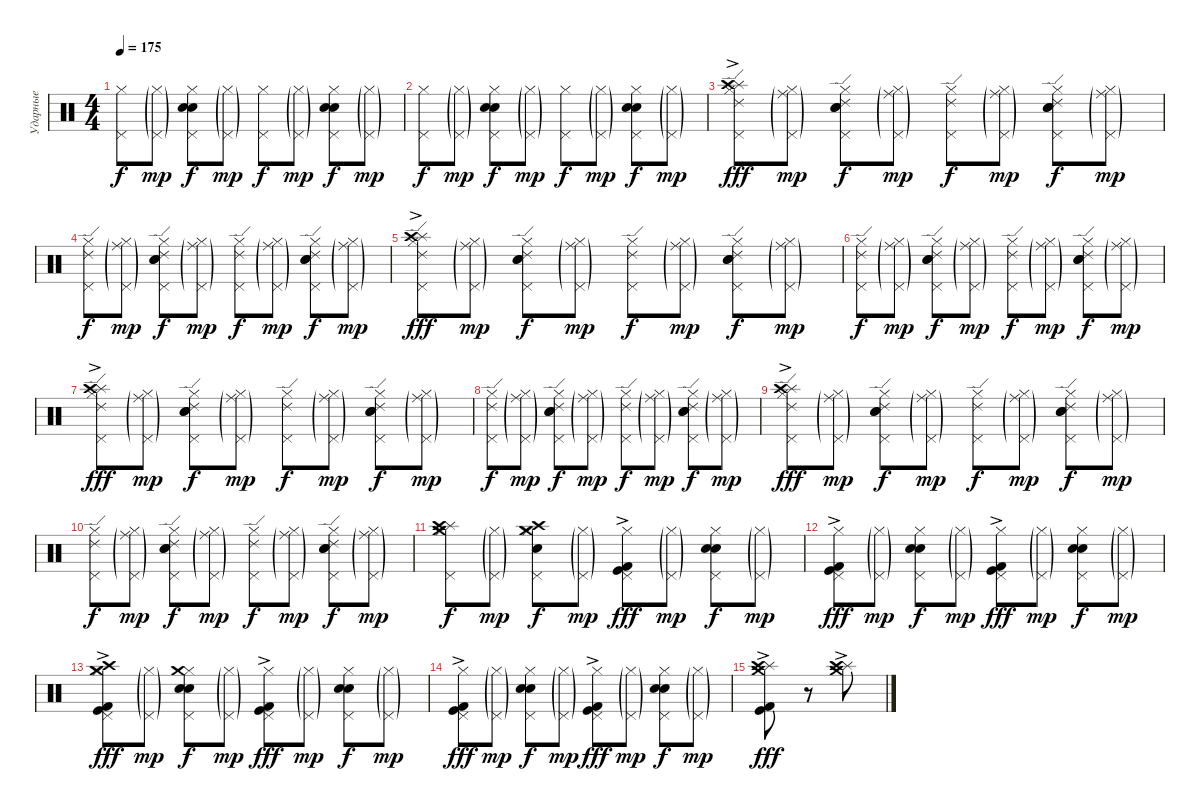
\track ("Ударные" "Ударные") {instrument percussion}
\staff {score}
\articulation defaults
\ts (4 4)
\tempo 175
\clef neutral
\ks c
("Hi-Hat (closed)" "Pedal Hi-Hat (hit)").8{dy f} ("Hi-Hat (closed)"{g} "Pedal Hi-Hat (hit)"{g}).8{dy mp} ("Hi-Hat (closed)" "Pedal Hi-Hat (hit)" "Snare (hit) 2" "Electric Snare (hit)").8{dy f} ("Hi-Hat (closed)"{g} "Pedal Hi-Hat (hit)"{g}).8{dy mp} ("Hi-Hat (closed)" "Pedal Hi-Hat (hit)").8{dy f} ("Hi-Hat (closed)"{g} "Pedal Hi-Hat (hit)"{g}).8{dy mp} ("Hi-Hat (closed)" "Pedal Hi-Hat (hit)" "Snare (hit) 2" "Electric Snare (hit)").8{dy f} ("Hi-Hat (closed)"{g} "Pedal Hi-Hat (hit)"{g}).8{dy mp} |
("Hi-Hat (closed)" "Pedal Hi-Hat (hit)").8{dy f} ("Hi-Hat (closed)"{g} "Pedal Hi-Hat (hit)"{g}).8{dy mp} ("Hi-Hat (closed)" "Pedal Hi-Hat (hit)" "Snare (hit) 2" "Electric Snare (hit)").8{dy f} ("Hi-Hat (closed)"{g} "Pedal Hi-Hat (hit)"{g}).8{dy mp} ("Hi-Hat (closed)" "Pedal Hi-Hat (hit)").8{dy f} ("Hi-Hat (closed)"{g} "Pedal Hi-Hat (hit)"{g}).8{dy mp} ("Hi-Hat (closed)" "Pedal Hi-Hat (hit)" "Snare (hit) 2" "Electric Snare (hit)").8{dy f} ("Hi-Hat (closed)"{g} "Pedal Hi-Hat (hit)"{g}).8{dy mp} |
("Ride (edge) 2" "Hi-Hat (closed)" "Pedal Hi-Hat (hit)" "Splash (hit)"{ac} "Crash high (hit)"{ac}).8{dy fff} ("Ride (middle)"{g} "Hi-Hat (closed)"{g} "Pedal Hi-Hat (hit)"{g}).8{dy mp} ("Ride (edge) 2" "Hi-Hat (closed)" "Pedal Hi-Hat (hit)" "Snare (hit) 2" "Electric Snare (hit)").8{dy f} ("Ride (middle)"{g} "Hi-Hat (closed)"{g} "Pedal Hi-Hat (hit)"{g}).8{dy mp} ("Ride (edge) 2" "Hi-Hat (closed)" "Pedal Hi-Hat (hit)").8{dy f} ("Ride (middle)"{g} "Hi-Hat (closed)"{g} "Pedal Hi-Hat (hit)"{g}).8{dy mp} ("Ride (edge) 2" "Hi-Hat (closed)" "Pedal Hi-Hat (hit)" "Snare (hit) 2" "Electric Snare (hit)").8{dy f} ("Ride (middle)"{g} "Hi-Hat (closed)"{g} "Pedal Hi-Hat (hit)"{g}).8{dy mp} |
("Ride (edge) 2" "Hi-Hat (closed)" "Pedal Hi-Hat (hit)").8{dy f} ("Ride (middle)"{g} "Hi-Hat (closed)"{g} "Pedal Hi-Hat (hit)"{g}).8{dy mp} ("Ride (edge) 2" "Hi-Hat (closed)" "Pedal Hi-Hat (hit)" "Snare (hit) 2" "Electric Snare (hit)").8{dy f} ("Ride (middle)"{g} "Hi-Hat (closed)"{g} "Pedal Hi-Hat (hit)"{g}).8{dy mp} ("Ride (edge) 2" "Hi-Hat (closed)" "Pedal Hi-Hat (hit)").8{dy f} ("Ride (middle)"{g} "Hi-Hat (closed)"{g} "Pedal Hi-Hat (hit)"{g}).8{dy mp} ("Ride (edge) 2" "Hi-Hat (closed)" "Pedal Hi-Hat (hit)" "Snare (hit) 2" "Electric Snare (hit)").8{dy f} ("Ride (middle)"{g} "Hi-Hat (closed)"{g} "Pedal Hi-Hat (hit)"{g}).8{dy mp} |
("Ride (edge) 2" "Hi-Hat (closed)" "Pedal Hi-Hat (hit)" "Splash (hit)"{ac} "Crash high (hit)"{ac}).8{dy fff} ("Ride (middle)"{g} "Hi-Hat (closed)"{g} "Pedal Hi-Hat (hit)"{g}).8{dy mp} ("Ride (edge) 2" "Hi-Hat (closed)" "Pedal Hi-Hat (hit)" "Snare (hit) 2" "Electric Snare (hit)").8{dy f} ("Ride (middle)"{g} "Hi-Hat (closed)"{g} "Pedal Hi-Hat (hit)"{g}).8{dy mp} ("Ride (edge) 2" "Hi-Hat (closed)" "Pedal Hi-Hat (hit)").8{dy f} ("Ride (middle)"{g} "Hi-Hat (closed)"{g} "Pedal Hi-Hat (hit)"{g}).8{dy mp} ("Ride (edge) 2" "Hi-Hat (closed)" "Pedal Hi-Hat (hit)" "Snare (hit) 2" "Electric Snare (hit)").8{dy f} ("Ride (middle)"{g} "Hi-Hat (closed)"{g} "Pedal Hi-Hat (hit)"{g}).8{dy mp} |
("Ride (edge) 2" "Hi-Hat (closed)" "Pedal Hi-Hat (hit)").8{dy f} ("Ride (middle)"{g} "Hi-Hat (closed)"{g} "Pedal Hi-Hat (hit)"{g}).8{dy mp} ("Ride (edge) 2" "Hi-Hat (closed)" "Pedal Hi-Hat (hit)" "Snare (hit) 2" "Electric Snare (hit)").8{dy f} ("Ride (middle)"{g} "Hi-Hat (closed)"{g} "Pedal Hi-Hat (hit)"{g}).8{dy mp} ("Ride (edge) 2" "Hi-Hat (closed)" "Pedal Hi-Hat (hit)").8{dy f} ("Ride (middle)"{g} "Hi-Hat (closed)"{g} "Pedal Hi-Hat (hit)"{g}).8{dy mp} ("Ride (edge) 2" "Hi-Hat (closed)" "Pedal Hi-Hat (hit)" "Snare (hit) 2" "Electric Snare (hit)").8{dy f} ("Ride (middle)"{g} "Hi-Hat (closed)"{g} "Pedal Hi-Hat (hit)"{g}).8{dy mp} |
("Ride (edge) 2" "Hi-Hat (closed)" "Pedal Hi-Hat (hit)" "Splash (hit)"{ac} "Crash high (hit)"{ac}).8{dy fff} ("Ride (middle)"{g} "Hi-Hat (closed)"{g} "Pedal Hi-Hat (hit)"{g}).8{dy mp} ("Ride (edge) 2" "Hi-Hat (closed)" "Pedal Hi-Hat (hit)" "Snare (hit) 2" "Electric Snare (hit)").8{dy f} ("Ride (middle)"{g} "Hi-Hat (closed)"{g} "Pedal Hi-Hat (hit)"{g}).8{dy mp} ("Ride (edge) 2" "Hi-Hat (closed)" "Pedal Hi-Hat (hit)").8{dy f} ("Ride (middle)"{g} "Hi-Hat (closed)"{g} "Pedal Hi-Hat (hit)"{g}).8{dy mp} ("Ride (edge) 2" "Hi-Hat (closed)" "Pedal Hi-Hat (hit)" "Snare (hit) 2" "Electric Snare (hit)").8{dy f} ("Ride (middle)"{g} "Hi-Hat (closed)"{g} "Pedal Hi-Hat (hit)"{g}).8{dy mp} |
("Ride (edge) 2" "Hi-Hat (closed)" "Pedal Hi-Hat (hit)").8{dy f} ("Ride (middle)"{g} "Hi-Hat (closed)"{g} "Pedal Hi-Hat (hit)"{g}).8{dy mp} ("Ride (edge) 2" "Hi-Hat (closed)" "Pedal Hi-Hat (hit)" "Snare (hit) 2" "Electric Snare (hit)").8{dy f} ("Ride (middle)"{g} "Hi-Hat (closed)"{g} "Pedal Hi-Hat (hit)"{g}).8{dy mp} ("Ride (edge) 2" "Hi-Hat (closed)" "Pedal Hi-Hat (hit)").8{dy f} ("Ride (middle)"{g} "Hi-Hat (closed)"{g} "Pedal Hi-Hat (hit)"{g}).8{dy mp} ("Ride (edge) 2" "Hi-Hat (closed)" "Pedal Hi-Hat (hit)" "Snare (hit) 2" "Electric Snare (hit)").8{dy f} ("Ride (middle)"{g} "Hi-Hat (closed)"{g} "Pedal Hi-Hat (hit)"{g}).8{dy mp} |
("Ride (edge) 2" "Hi-Hat (closed)" "Pedal Hi-Hat (hit)" "Splash (hit)"{ac} "Crash high (hit)"{ac}).8{dy fff} ("Ride (middle)"{g} "Hi-Hat (closed)"{g} "Pedal Hi-Hat (hit)"{g}).8{dy mp} ("Ride (edge) 2" "Hi-Hat (closed)" "Pedal Hi-Hat (hit)" "Snare (hit) 2" "Electric Snare (hit)").8{dy f} ("Ride (middle)"{g} "Hi-Hat (closed)"{g} "Pedal Hi-Hat (hit)"{g}).8{dy mp} ("Ride (edge) 2" "Hi-Hat (closed)" "Pedal Hi-Hat (hit)").8{dy f} ("Ride (middle)"{g} "Hi-Hat (closed)"{g} "Pedal Hi-Hat (hit)"{g}).8{dy mp} ("Ride (edge) 2" "Hi-Hat (closed)" "Pedal Hi-Hat (hit)" "Snare (hit) 2" "Electric Snare (hit)").8{dy f} ("Ride (middle)"{g} "Hi-Hat (closed)"{g} "Pedal Hi-Hat (hit)"{g}).8{dy mp} |
("Ride (edge) 2" "Hi-Hat (closed)" "Pedal Hi-Hat (hit)").8{dy f} ("Ride (middle)"{g} "Hi-Hat (closed)"{g} "Pedal Hi-Hat (hit)"{g}).8{dy mp} ("Ride (edge) 2" "Hi-Hat (closed)" "Pedal Hi-Hat (hit)" "Snare (hit) 2" "Electric Snare (hit)").8{dy f} ("Ride (middle)"{g} "Hi-Hat (closed)"{g} "Pedal Hi-Hat (hit)"{g}).8{dy mp} ("Ride (edge) 2" "Hi-Hat (closed)" "Pedal Hi-Hat (hit)").8{dy f} ("Ride (middle)"{g} "Hi-Hat (closed)"{g} "Pedal Hi-Hat (hit)"{g}).8{dy mp} ("Ride (edge) 2" "Hi-Hat (closed)" "Pedal Hi-Hat (hit)" "Snare (hit) 2" "Electric Snare (hit)").8{dy f} ("Ride (middle)"{g} "Hi-Hat (closed)"{g} "Pedal Hi-Hat (hit)"{g}).8{dy mp} |
("Hi-Hat (closed)" "Pedal Hi-Hat (hit)" "Splash (hit)" "Crash medium (hit)" "Crash high (hit)").8{dy f} ("Hi-Hat (closed)"{g} "Pedal Hi-Hat (hit)"{g}).8{dy mp} ("Hi-Hat (closed)" "Pedal Hi-Hat (hit)" "Crash high (hit)" "Crash medium (hit)" "Electric Snare (hit)").8{dy f} ("Hi-Hat (closed)"{g} "Pedal Hi-Hat (hit)"{g}).8{dy mp} ("Hi-Hat (closed)" "Pedal Hi-Hat (hit)" "Kick (hit) 2"{ac} "Kick (hit)"{ac}).8{dy fff} ("Hi-Hat (closed)"{g} "Pedal Hi-Hat (hit)"{g}).8{dy mp} ("Hi-Hat (closed)" "Pedal Hi-Hat (hit)" "Snare (hit) 2" "Electric Snare (hit)").8{dy f} ("Hi-Hat (closed)"{g} "Pedal Hi-Hat (hit)"{g}).8{dy mp} |
("Hi-Hat (closed)" "Pedal Hi-Hat (hit)" "Kick (hit) 2"{ac} "Kick (hit)"{ac}).8{dy fff} ("Hi-Hat (closed)"{g} "Pedal Hi-Hat (hit)"{g}).8{dy mp} ("Hi-Hat (closed)" "Pedal Hi-Hat (hit)" "Snare (hit) 2" "Electric Snare (hit)").8{dy f} ("Hi-Hat (closed)"{g} "Pedal Hi-Hat (hit)"{g}).8{dy mp} ("Hi-Hat (closed)" "Pedal Hi-Hat (hit)" "Kick (hit) 2"{ac} "Kick (hit)"{ac}).8{dy fff} ("Hi-Hat (closed)"{g} "Pedal Hi-Hat (hit)"{g}).8{dy mp} ("Hi-Hat (closed)" "Pedal Hi-Hat (hit)" "Snare (hit) 2" "Electric Snare (hit)").8{dy f} ("Hi-Hat (closed)"{g} "Pedal Hi-Hat (hit)"{g}).8{dy mp} |
("Crash high (hit)" "Hi-Hat (closed)" "Pedal Hi-Hat (hit)" "Crash medium (hit)" "Kick (hit)"{ac} "Kick (hit) 2"{ac}).8{dy fff} ("Hi-Hat (closed)"{g} "Pedal Hi-Hat (hit)"{g}).8{dy mp} ("Hi-Hat (closed)" "Pedal Hi-Hat (hit)" "Crash medium (hit)" "Snare (hit) 2" "Electric Snare (hit)").8{dy f} ("Hi-Hat (closed)"{g} "Pedal Hi-Hat (hit)"{g}).8{dy mp} ("Hi-Hat (closed)" "Pedal Hi-Hat (hit)" "Kick (hit) 2"{ac} "Kick (hit)"{ac}).8{dy fff} ("Hi-Hat (closed)"{g} "Pedal Hi-Hat (hit)"{g}).8{dy mp} ("Hi-Hat (closed)" "Pedal Hi-Hat (hit)" "Snare (hit) 2" "Electric Snare (hit)").8{dy f} ("Hi-Hat (closed)"{g} "Pedal Hi-Hat (hit)"{g}).8{dy mp} |
("Hi-Hat (closed)" "Pedal Hi-Hat (hit)" "Kick (hit) 2"{ac} "Kick (hit)"{ac}).8{dy fff} ("Hi-Hat (closed)"{g} "Pedal Hi-Hat (hit)"{g}).8{dy mp} ("Hi-Hat (closed)" "Pedal Hi-Hat (hit)" "Snare (hit) 2" "Electric Snare (hit)").8{dy f} ("Hi-Hat (closed)"{g} "Pedal Hi-Hat (hit)"{g}).8{dy mp} ("Hi-Hat (closed)" "Pedal Hi-Hat (hit)" "Kick (hit) 2"{ac} "Kick (hit)"{ac}).8{dy fff} ("Hi-Hat (closed)"{g} "Pedal Hi-Hat (hit)"{g}).8{dy mp} ("Hi-Hat (closed)" "Pedal Hi-Hat (hit)" "Snare (hit) 2" "Electric Snare (hit)").8{dy f} ("Hi-Hat (closed)"{g} "Pedal Hi-Hat (hit)"{g}).8{dy mp} |
("Splash (hit)"{ac} "Crash medium (hit)"{ac} "Crash high (hit)"{ac} "Kick (hit) 2"{ac} "Kick (hit)"{ac}).8{dy fff} r.8 ("Crash medium (hit)"{ac} "Splash (hit)"{ac} "Crash high (hit)"{ac}).8
